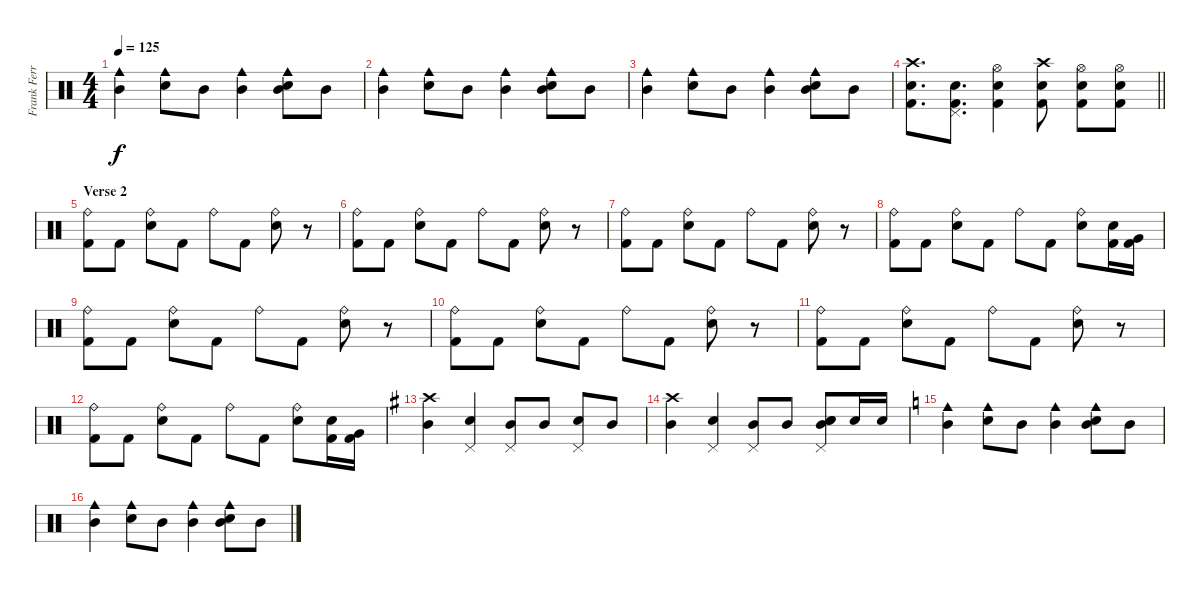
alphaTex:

\track ("Frank Ferrer" "Frank Ferr") {instrument percussion}
\staff {score}
\articulation defaults
\ts (4 4)
\tempo 125
\clef neutral
\ks c
("Mid Tom (hit)" "Cowbell medium (hit)").4{dy f} ("Electric Snare (hit)" "Cowbell medium (hit)").8 "Mid Tom (hit)".8 ("Mid Tom (hit)" "Cowbell medium (hit)").4 ("Electric Snare (hit)" "Mid Tom (hit)" "Cowbell medium (hit)").8 "Mid Tom (hit)".8 |
("Mid Tom (hit)" "Cowbell medium (hit)").4 ("Electric Snare (hit)" "Cowbell medium (hit)").8 "Mid Tom (hit)".8 ("Mid Tom (hit)" "Cowbell medium (hit)").4 ("Electric Snare (hit)" "Mid Tom (hit)" "Cowbell medium (hit)").8 "Mid Tom (hit)".8 |
("Mid Tom (hit)" "Cowbell medium (hit)").4 ("Electric Snare (hit)" "Cowbell medium (hit)").8 "Mid Tom (hit)".8 ("Mid Tom (hit)" "Cowbell medium (hit)").4 ("Electric Snare (hit)" "Mid Tom (hit)" "Cowbell medium (hit)").8 "Mid Tom (hit)".8 |
\barLineRight lightlight
("Kick (hit) 2" "Snare (hit) 2" "Crash high (hit)").8{d} ("Kick (hit) 2" "Snare (hit) 2" "Pedal Hi-Hat (hit)").8{d} ("Kick (hit) 2" "Snare (hit) 2" "Hi-Hat (open)").4 ("Kick (hit) 2" "Snare (hit) 2" "Crash high (hit)").8 ("Kick (hit) 2" "Snare (hit) 2" "Hi-Hat (open)").8 ("Kick (hit) 2" "Snare (hit) 2" "Hi-Hat (open)").8 |
\section ("" "Verse 2")
("Kick (hit) 2" "Ride (bell)").8 "Kick (hit) 2".8 ("Electric Snare (hit)" "Ride (bell)").8 "Kick (hit) 2".8 "Ride (bell)".8 "Kick (hit) 2".8 ("Electric Snare (hit)" "Ride (bell)").8 r.8 |
("Kick (hit) 2" "Ride (bell)").8 "Kick (hit) 2".8 ("Electric Snare (hit)" "Ride (bell)").8 "Kick (hit) 2".8 "Ride (bell)".8 "Kick (hit) 2".8 ("Electric Snare (hit)" "Ride (bell)").8 r.8 |
("Kick (hit) 2" "Ride (bell)").8 "Kick (hit) 2".8 ("Electric Snare (hit)" "Ride (bell)").8 "Kick (hit) 2".8 "Ride (bell)".8 "Kick (hit) 2".8 ("Electric Snare (hit)" "Ride (bell)").8 r.8 |
("Kick (hit) 2" "Ride (bell)").8 "Kick (hit) 2".8 ("Electric Snare (hit)" "Ride (bell)").8 "Kick (hit) 2".8 "Ride (bell)".8 "Kick (hit) 2".8 ("Electric Snare (hit)" "Ride (bell)").8 ("Kick (hit) 2" "Electric Snare (hit)").16 ("Kick (hit) 2" "Very Low Tom (hit)").16 |
("Kick (hit) 2" "Ride (bell)").8 "Kick (hit) 2".8 ("Electric Snare (hit)" "Ride (bell)").8 "Kick (hit) 2".8 "Ride (bell)".8 "Kick (hit) 2".8 ("Electric Snare (hit)" "Ride (bell)").8 r.8 |
("Kick (hit) 2" "Ride (bell)").8 "Kick (hit) 2".8 ("Electric Snare (hit)" "Ride (bell)").8 "Kick (hit) 2".8 "Ride (bell)".8 "Kick (hit) 2".8 ("Electric Snare (hit)" "Ride (bell)").8 r.8 |
("Kick (hit) 2" "Ride (bell)").8 "Kick (hit) 2".8 ("Electric Snare (hit)" "Ride (bell)").8 "Kick (hit) 2".8 "Ride (bell)".8 "Kick (hit) 2".8 ("Electric Snare (hit)" "Ride (bell)").8 r.8 |
("Kick (hit) 2" "Ride (bell)").8 "Kick (hit) 2".8 ("Electric Snare (hit)" "Ride (bell)").8 "Kick (hit) 2".8 "Ride (bell)".8 "Kick (hit) 2".8 ("Electric Snare (hit)" "Ride (bell)").8 ("Kick (hit) 2" "Electric Snare (hit)").16 ("Kick (hit) 2" "Very Low Tom (hit)").16 |
\ks g
("Crash high (hit)" "Mid Tom (hit)").4 ("Pedal Hi-Hat (hit)" "Snare (hit) 2").4 ("Pedal Hi-Hat (hit)" "Mid Tom (hit)").8 "Mid Tom (hit)".8 ("Pedal Hi-Hat (hit)" "Snare (hit) 2").8 "Mid Tom (hit)".8 |
("Crash high (hit)" "Mid Tom (hit)").4 ("Pedal Hi-Hat (hit)" "Snare (hit) 2").4 ("Pedal Hi-Hat (hit)" "Mid Tom (hit)").8 "Mid Tom (hit)".8 ("Pedal Hi-Hat (hit)" "Snare (hit) 2" "Electric Snare (hit)" "Mid Tom (hit)").8 "Electric Snare (hit)".16 "Electric Snare (hit)".16 |
\ks c
("Mid Tom (hit)" "Cowbell medium (hit)").4 ("Electric Snare (hit)" "Cowbell medium (hit)").8 "Mid Tom (hit)".8 ("Mid Tom (hit)" "Cowbell medium (hit)").4 ("Electric Snare (hit)" "Mid Tom (hit)" "Cowbell medium (hit)").8 "Mid Tom (hit)".8 |
("Mid Tom (hit)" "Cowbell medium (hit)").4 ("Electric Snare (hit)" "Cowbell medium (hit)").8 "Mid Tom (hit)".8 ("Mid Tom (hit)" "Cowbell medium (hit)").4 ("Electric Snare (hit)" "Mid Tom (hit)" "Cowbell medium (hit)").8 "Mid Tom (hit)".8
